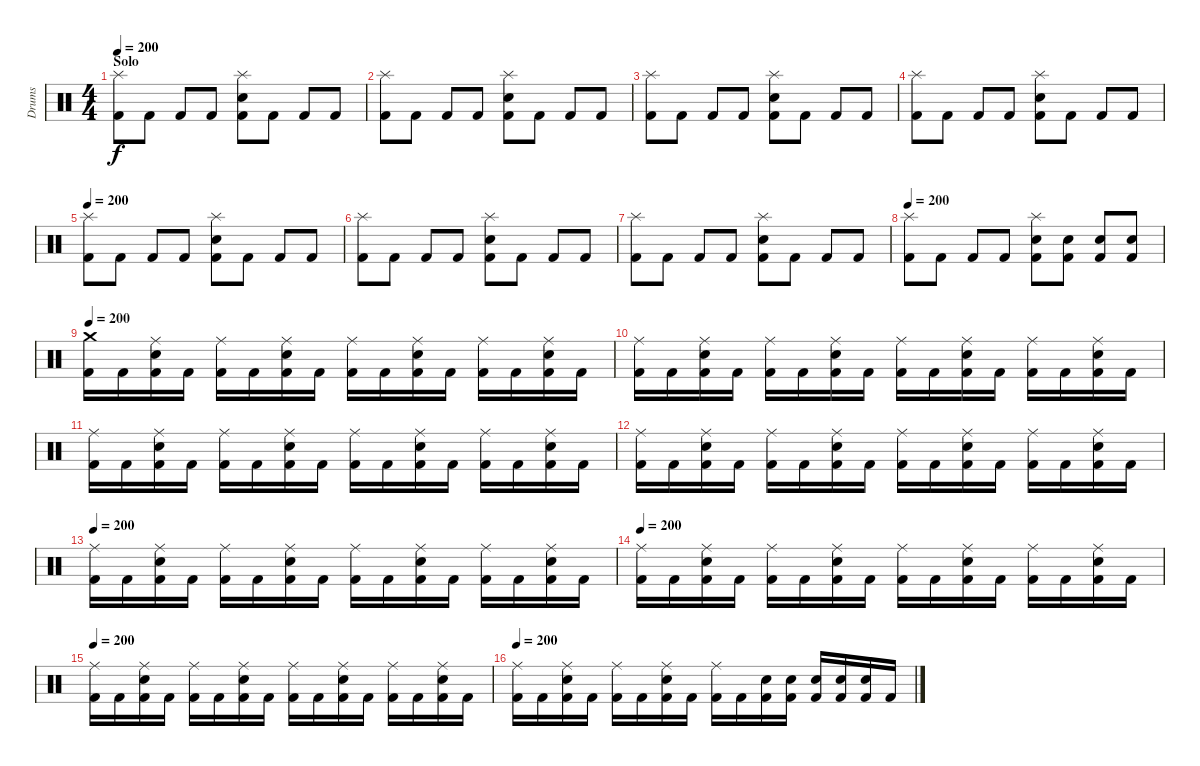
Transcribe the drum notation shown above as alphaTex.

\track ("Drums" "Drums") {instrument percussion}
\staff {score}
\articulation defaults
\ts (4 4)
\section ("" "Solo")
\tempo 200
\clef neutral
\ks c
("Splash (hit)" "Kick (hit) 2").8{dy f} "Kick (hit) 2".8 "Kick (hit) 2".8 "Kick (hit) 2".8 ("Splash (hit)" "Snare (hit) 2" "Kick (hit) 2").8 "Kick (hit) 2".8 "Kick (hit) 2".8 "Kick (hit) 2".8 |
("Splash (hit)" "Kick (hit) 2").8 "Kick (hit) 2".8 "Kick (hit) 2".8 "Kick (hit) 2".8 ("Splash (hit)" "Snare (hit) 2" "Kick (hit) 2").8 "Kick (hit) 2".8 "Kick (hit) 2".8 "Kick (hit) 2".8 |
("Splash (hit)" "Kick (hit) 2").8 "Kick (hit) 2".8 "Kick (hit) 2".8 "Kick (hit) 2".8 ("Splash (hit)" "Snare (hit) 2" "Kick (hit) 2").8 "Kick (hit) 2".8 "Kick (hit) 2".8 "Kick (hit) 2".8 |
("Splash (hit)" "Kick (hit) 2").8 "Kick (hit) 2".8 "Kick (hit) 2".8 "Kick (hit) 2".8 ("Splash (hit)" "Snare (hit) 2" "Kick (hit) 2").8 "Kick (hit) 2".8 "Kick (hit) 2".8 "Kick (hit) 2".8 |
\tempo 200
("Splash (hit)" "Kick (hit) 2").8 "Kick (hit) 2".8 "Kick (hit) 2".8 "Kick (hit) 2".8 ("Splash (hit)" "Snare (hit) 2" "Kick (hit) 2").8 "Kick (hit) 2".8 "Kick (hit) 2".8 "Kick (hit) 2".8 |
("Splash (hit)" "Kick (hit) 2").8 "Kick (hit) 2".8 "Kick (hit) 2".8 "Kick (hit) 2".8 ("Splash (hit)" "Snare (hit) 2" "Kick (hit) 2").8 "Kick (hit) 2".8 "Kick (hit) 2".8 "Kick (hit) 2".8 |
("Splash (hit)" "Kick (hit) 2").8 "Kick (hit) 2".8 "Kick (hit) 2".8 "Kick (hit) 2".8 ("Splash (hit)" "Snare (hit) 2" "Kick (hit) 2").8 "Kick (hit) 2".8 "Kick (hit) 2".8 "Kick (hit) 2".8 |
\tempo 200
("Splash (hit)" "Kick (hit) 2").8 "Kick (hit) 2".8 "Kick (hit) 2".8 "Kick (hit) 2".8 ("Splash (hit)" "Snare (hit) 2" "Kick (hit) 2").8 ("Snare (hit) 2" "Kick (hit) 2").8 ("Snare (hit) 2" "Kick (hit) 2").8 ("Snare (hit) 2" "Kick (hit) 2").8 |
\tempo 200
("Crash medium (hit)" "Kick (hit) 2").16 "Kick (hit) 2".16 ("Ride (middle)" "Snare (hit) 2" "Kick (hit) 2").16 "Kick (hit) 2".16 ("Ride (middle)" "Kick (hit) 2").16 "Kick (hit) 2".16 ("Ride (middle)" "Snare (hit) 2" "Kick (hit) 2").16 "Kick (hit) 2".16 ("Ride (middle)" "Kick (hit) 2").16 "Kick (hit) 2".16 ("Ride (middle)" "Snare (hit) 2" "Kick (hit) 2").16 "Kick (hit) 2".16 ("Ride (middle)" "Kick (hit) 2").16 "Kick (hit) 2".16 ("Ride (middle)" "Snare (hit) 2" "Kick (hit) 2").16 "Kick (hit) 2".16 |
("Ride (middle)" "Kick (hit) 2").16 "Kick (hit) 2".16 ("Ride (middle)" "Snare (hit) 2" "Kick (hit) 2").16 "Kick (hit) 2".16 ("Ride (middle)" "Kick (hit) 2").16 "Kick (hit) 2".16 ("Ride (middle)" "Snare (hit) 2" "Kick (hit) 2").16 "Kick (hit) 2".16 ("Ride (middle)" "Kick (hit) 2").16 "Kick (hit) 2".16 ("Ride (middle)" "Snare (hit) 2" "Kick (hit) 2").16 "Kick (hit) 2".16 ("Ride (middle)" "Kick (hit) 2").16 "Kick (hit) 2".16 ("Ride (middle)" "Snare (hit) 2" "Kick (hit) 2").16 "Kick (hit) 2".16 |
("Ride (middle)" "Kick (hit) 2").16 "Kick (hit) 2".16 ("Ride (middle)" "Snare (hit) 2" "Kick (hit) 2").16 "Kick (hit) 2".16 ("Ride (middle)" "Kick (hit) 2").16 "Kick (hit) 2".16 ("Ride (middle)" "Snare (hit) 2" "Kick (hit) 2").16 "Kick (hit) 2".16 ("Ride (middle)" "Kick (hit) 2").16 "Kick (hit) 2".16 ("Ride (middle)" "Snare (hit) 2" "Kick (hit) 2").16 "Kick (hit) 2".16 ("Ride (middle)" "Kick (hit) 2").16 "Kick (hit) 2".16 ("Ride (middle)" "Snare (hit) 2" "Kick (hit) 2").16 "Kick (hit) 2".16 |
("Ride (middle)" "Kick (hit) 2").16 "Kick (hit) 2".16 ("Ride (middle)" "Snare (hit) 2" "Kick (hit) 2").16 "Kick (hit) 2".16 ("Ride (middle)" "Kick (hit) 2").16 "Kick (hit) 2".16 ("Ride (middle)" "Snare (hit) 2" "Kick (hit) 2").16 "Kick (hit) 2".16 ("Ride (middle)" "Kick (hit) 2").16 "Kick (hit) 2".16 ("Ride (middle)" "Snare (hit) 2" "Kick (hit) 2").16 "Kick (hit) 2".16 ("Ride (middle)" "Kick (hit) 2").16 "Kick (hit) 2".16 ("Ride (middle)" "Snare (hit) 2" "Kick (hit) 2").16 "Kick (hit) 2".16 |
\tempo 200
("Ride (middle)" "Kick (hit) 2").16 "Kick (hit) 2".16 ("Ride (middle)" "Snare (hit) 2" "Kick (hit) 2").16 "Kick (hit) 2".16 ("Ride (middle)" "Kick (hit) 2").16 "Kick (hit) 2".16 ("Ride (middle)" "Snare (hit) 2" "Kick (hit) 2").16 "Kick (hit) 2".16 ("Ride (middle)" "Kick (hit) 2").16 "Kick (hit) 2".16 ("Ride (middle)" "Snare (hit) 2" "Kick (hit) 2").16 "Kick (hit) 2".16 ("Ride (middle)" "Kick (hit) 2").16 "Kick (hit) 2".16 ("Ride (middle)" "Snare (hit) 2" "Kick (hit) 2").16 "Kick (hit) 2".16 |
\tempo 200
("Ride (middle)" "Kick (hit) 2").16 "Kick (hit) 2".16 ("Ride (middle)" "Snare (hit) 2" "Kick (hit) 2").16 "Kick (hit) 2".16 ("Ride (middle)" "Kick (hit) 2").16 "Kick (hit) 2".16 ("Ride (middle)" "Snare (hit) 2" "Kick (hit) 2").16 "Kick (hit) 2".16 ("Ride (middle)" "Kick (hit) 2").16 "Kick (hit) 2".16 ("Ride (middle)" "Snare (hit) 2" "Kick (hit) 2").16 "Kick (hit) 2".16 ("Ride (middle)" "Kick (hit) 2").16 "Kick (hit) 2".16 ("Ride (middle)" "Snare (hit) 2" "Kick (hit) 2").16 "Kick (hit) 2".16 |
\tempo 200
("Ride (middle)" "Kick (hit) 2").16 "Kick (hit) 2".16 ("Ride (middle)" "Snare (hit) 2" "Kick (hit) 2").16 "Kick (hit) 2".16 ("Ride (middle)" "Kick (hit) 2").16 "Kick (hit) 2".16 ("Ride (middle)" "Snare (hit) 2" "Kick (hit) 2").16 "Kick (hit) 2".16 ("Ride (middle)" "Kick (hit) 2").16 "Kick (hit) 2".16 ("Ride (middle)" "Snare (hit) 2" "Kick (hit) 2").16 "Kick (hit) 2".16 ("Ride (middle)" "Kick (hit) 2").16 "Kick (hit) 2".16 ("Ride (middle)" "Snare (hit) 2" "Kick (hit) 2").16 "Kick (hit) 2".16 |
\tempo 200
("Ride (middle)" "Kick (hit) 2").16 "Kick (hit) 2".16 ("Ride (middle)" "Snare (hit) 2" "Kick (hit) 2").16 "Kick (hit) 2".16 ("Ride (middle)" "Kick (hit) 2").16 "Kick (hit) 2".16 ("Ride (middle)" "Snare (hit) 2" "Kick (hit) 2").16 "Kick (hit) 2".16 ("Ride (middle)" "Kick (hit) 2").16 "Kick (hit) 2".16 ("Snare (hit) 2" "Kick (hit) 2").16 ("Snare (hit) 2" "Kick (hit) 2").16 ("Snare (hit) 2" "Kick (hit) 2").16 ("Snare (hit) 2" "Kick (hit) 2").16 ("Snare (hit) 2" "Kick (hit) 2").16 "Kick (hit) 2".16
